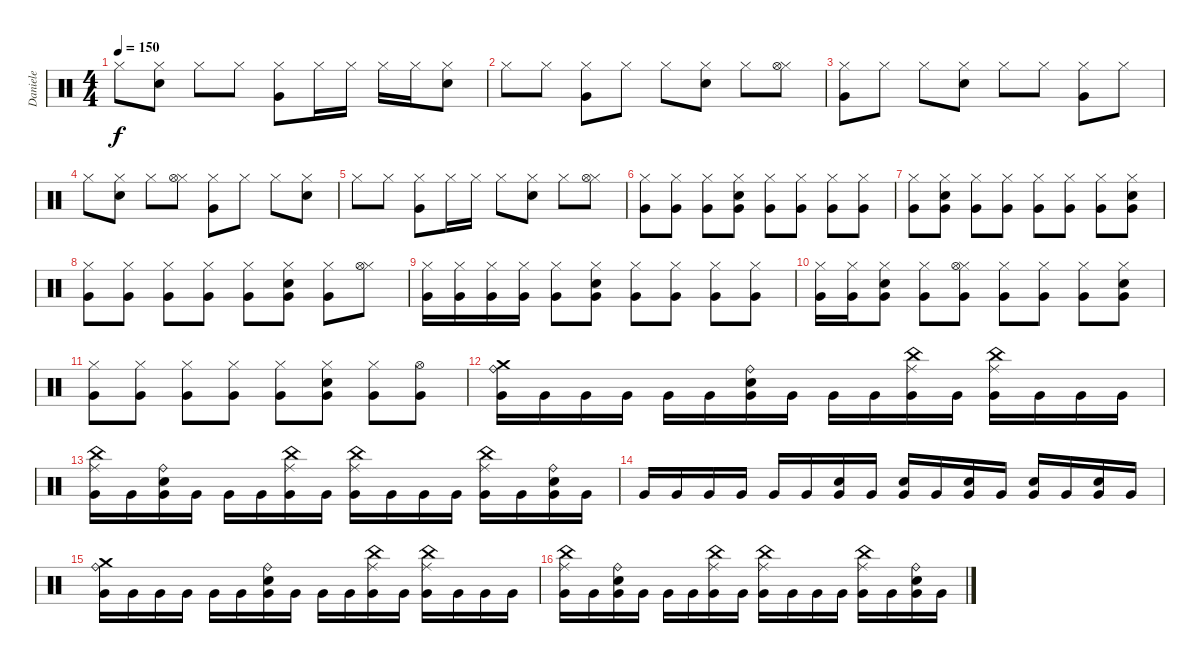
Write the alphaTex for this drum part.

\track ("Daniele" "Daniele") {instrument percussion}
\staff {score}
\articulation defaults
\ts (4 4)
\tempo 150
\clef neutral
\ks c "Hi-Hat (closed)".8{dy f}
("Hi-Hat (closed)" "Snare (hit) 2").8 "Hi-Hat (closed)".8 "Hi-Hat (closed)".8 ("Hi-Hat (closed)" "Very Low Tom (hit)").8 "Hi-Hat (closed)".16 "Hi-Hat (closed)".16 "Hi-Hat (closed)".16 "Hi-Hat (closed)".16 ("Hi-Hat (closed)" "Snare (hit) 2").8 |
"Hi-Hat (closed)".8 "Hi-Hat (closed)".8 ("Hi-Hat (closed)" "Very Low Tom (hit)").8 "Hi-Hat (closed)".8 "Hi-Hat (closed)".8 ("Hi-Hat (closed)" "Snare (hit) 2").8 "Hi-Hat (closed)".8 ("Hi-Hat (closed)" "Hi-Hat (open)").8 |
("Hi-Hat (closed)" "Very Low Tom (hit)").8 "Hi-Hat (closed)".8 "Hi-Hat (closed)".8 ("Hi-Hat (closed)" "Snare (hit) 2").8 "Hi-Hat (closed)".8 "Hi-Hat (closed)".8 ("Hi-Hat (closed)" "Very Low Tom (hit)").8 "Hi-Hat (closed)".8 |
"Hi-Hat (closed)".8 ("Hi-Hat (closed)" "Snare (hit) 2").8 "Hi-Hat (closed)".8 ("Hi-Hat (closed)" "Hi-Hat (open)").8 ("Hi-Hat (closed)" "Very Low Tom (hit)").8 "Hi-Hat (closed)".8 "Hi-Hat (closed)".8 ("Hi-Hat (closed)" "Snare (hit) 2").8 |
"Hi-Hat (closed)".8 "Hi-Hat (closed)".8 ("Hi-Hat (closed)" "Very Low Tom (hit)").8 "Hi-Hat (closed)".16 "Hi-Hat (closed)".16 "Hi-Hat (closed)".8 ("Hi-Hat (closed)" "Snare (hit) 2").8 "Hi-Hat (closed)".8 ("Hi-Hat (closed)" "Hi-Hat (open)").8 |
("Hi-Hat (closed)" "Very Low Tom (hit)").8 ("Hi-Hat (closed)" "Very Low Tom (hit)").8 ("Hi-Hat (closed)" "Very Low Tom (hit)").8 ("Hi-Hat (closed)" "Very Low Tom (hit)" "Snare (hit) 2").8 ("Hi-Hat (closed)" "Very Low Tom (hit)").8 ("Hi-Hat (closed)" "Very Low Tom (hit)").8 ("Hi-Hat (closed)" "Very Low Tom (hit)").8 ("Hi-Hat (closed)" "Very Low Tom (hit)").8 |
("Hi-Hat (closed)" "Very Low Tom (hit)").8 ("Hi-Hat (closed)" "Very Low Tom (hit)" "Snare (hit) 2").8 ("Hi-Hat (closed)" "Very Low Tom (hit)").8 ("Hi-Hat (closed)" "Very Low Tom (hit)").8 ("Hi-Hat (closed)" "Very Low Tom (hit)").8 ("Hi-Hat (closed)" "Very Low Tom (hit)").8 ("Hi-Hat (closed)" "Very Low Tom (hit)").8 ("Hi-Hat (closed)" "Very Low Tom (hit)" "Snare (hit) 2").8 |
("Hi-Hat (closed)" "Very Low Tom (hit)").8 ("Hi-Hat (closed)" "Very Low Tom (hit)").8 ("Hi-Hat (closed)" "Very Low Tom (hit)").8 ("Hi-Hat (closed)" "Very Low Tom (hit)").8 ("Hi-Hat (closed)" "Very Low Tom (hit)").8 ("Hi-Hat (closed)" "Very Low Tom (hit)" "Snare (hit) 2").8 ("Hi-Hat (closed)" "Very Low Tom (hit)").8 ("Hi-Hat (closed)" "Hi-Hat (open)").8 |
("Hi-Hat (closed)" "Very Low Tom (hit)").16 ("Hi-Hat (closed)" "Very Low Tom (hit)").16 ("Hi-Hat (closed)" "Very Low Tom (hit)").16 ("Hi-Hat (closed)" "Very Low Tom (hit)").16 ("Hi-Hat (closed)" "Very Low Tom (hit)").8 ("Hi-Hat (closed)" "Very Low Tom (hit)" "Snare (hit) 2").8 ("Hi-Hat (closed)" "Very Low Tom (hit)").8 ("Hi-Hat (closed)" "Very Low Tom (hit)").8 ("Hi-Hat (closed)" "Very Low Tom (hit)").8 ("Hi-Hat (closed)" "Very Low Tom (hit)").8 |
("Hi-Hat (closed)" "Very Low Tom (hit)").16 ("Hi-Hat (closed)" "Very Low Tom (hit)").16 ("Hi-Hat (closed)" "Very Low Tom (hit)" "Snare (hit) 2").8 ("Hi-Hat (closed)" "Very Low Tom (hit)").8 ("Hi-Hat (closed)" "Very Low Tom (hit)" "Hi-Hat (open)").8 ("Hi-Hat (closed)" "Very Low Tom (hit)").8 ("Hi-Hat (closed)" "Very Low Tom (hit)").8 ("Hi-Hat (closed)" "Very Low Tom (hit)").8 ("Hi-Hat (closed)" "Very Low Tom (hit)" "Snare (hit) 2").8 |
("Hi-Hat (closed)" "Very Low Tom (hit)").8 ("Hi-Hat (closed)" "Very Low Tom (hit)").8 ("Hi-Hat (closed)" "Very Low Tom (hit)").8 ("Hi-Hat (closed)" "Very Low Tom (hit)").8 ("Hi-Hat (closed)" "Very Low Tom (hit)").8 ("Hi-Hat (closed)" "Snare (hit) 2" "Very Low Tom (hit)").8 ("Hi-Hat (closed)" "Very Low Tom (hit)").8 ("Hi-Hat (open)" "Very Low Tom (hit)").8 |
("Very Low Tom (hit)" "Crash medium (hit)" "Ride (bell)").16 "Very Low Tom (hit)".16 "Very Low Tom (hit)".16 "Very Low Tom (hit)".16 "Very Low Tom (hit)".16 "Very Low Tom (hit)".16 ("Very Low Tom (hit)" "Snare (hit) 2" "Ride (bell)").16 "Very Low Tom (hit)".16 "Very Low Tom (hit)".16 "Very Low Tom (hit)".16 ("Very Low Tom (hit)" "Ride (middle)" "China (hit)").16 "Very Low Tom (hit)".16 ("Very Low Tom (hit)" "Ride (middle)" "China (hit)").16 "Very Low Tom (hit)".16 "Very Low Tom (hit)".16 "Very Low Tom (hit)".16 |
("Very Low Tom (hit)" "Ride (middle)" "China (hit)").16 "Very Low Tom (hit)".16 ("Very Low Tom (hit)" "Snare (hit) 2" "Ride (bell)").16 "Very Low Tom (hit)".16 "Very Low Tom (hit)".16 "Very Low Tom (hit)".16 ("Very Low Tom (hit)" "Ride (middle)" "China (hit)").16 "Very Low Tom (hit)".16 ("Very Low Tom (hit)" "Ride (middle)" "China (hit)").16 "Very Low Tom (hit)".16 "Very Low Tom (hit)".16 "Very Low Tom (hit)".16 ("Very Low Tom (hit)" "Ride (middle)" "China (hit)").16 "Very Low Tom (hit)".16 ("Very Low Tom (hit)" "Snare (hit) 2" "Ride (bell)").16 "Very Low Tom (hit)".16 |
"Very Low Tom (hit)".16 "Very Low Tom (hit)".16 "Very Low Tom (hit)".16 "Very Low Tom (hit)".16 "Very Low Tom (hit)".16 "Very Low Tom (hit)".16 ("Very Low Tom (hit)" "Snare (hit) 2").16 "Very Low Tom (hit)".16 ("Very Low Tom (hit)" "Snare (hit) 2").16 "Very Low Tom (hit)".16 ("Very Low Tom (hit)" "Snare (hit) 2").16 "Very Low Tom (hit)".16 ("Very Low Tom (hit)" "Snare (hit) 2").16 "Very Low Tom (hit)".16 ("Very Low Tom (hit)" "Snare (hit) 2").16 "Very Low Tom (hit)".16 |
("Very Low Tom (hit)" "Crash medium (hit)" "Ride (bell)").16 "Very Low Tom (hit)".16 "Very Low Tom (hit)".16 "Very Low Tom (hit)".16 "Very Low Tom (hit)".16 "Very Low Tom (hit)".16 ("Very Low Tom (hit)" "Snare (hit) 2" "Ride (bell)").16 "Very Low Tom (hit)".16 "Very Low Tom (hit)".16 "Very Low Tom (hit)".16 ("Very Low Tom (hit)" "Ride (middle)" "China (hit)").16 "Very Low Tom (hit)".16 ("Very Low Tom (hit)" "Ride (middle)" "China (hit)").16 "Very Low Tom (hit)".16 "Very Low Tom (hit)".16 "Very Low Tom (hit)".16 |
("Very Low Tom (hit)" "Ride (middle)" "China (hit)").16 "Very Low Tom (hit)".16 ("Very Low Tom (hit)" "Snare (hit) 2" "Ride (bell)").16 "Very Low Tom (hit)".16 "Very Low Tom (hit)".16 "Very Low Tom (hit)".16 ("Very Low Tom (hit)" "Ride (middle)" "China (hit)").16 "Very Low Tom (hit)".16 ("Very Low Tom (hit)" "Ride (middle)" "China (hit)").16 "Very Low Tom (hit)".16 "Very Low Tom (hit)".16 "Very Low Tom (hit)".16 ("Very Low Tom (hit)" "Ride (middle)" "China (hit)").16 "Very Low Tom (hit)".16 ("Very Low Tom (hit)" "Snare (hit) 2" "Ride (bell)").16 "Very Low Tom (hit)".16
